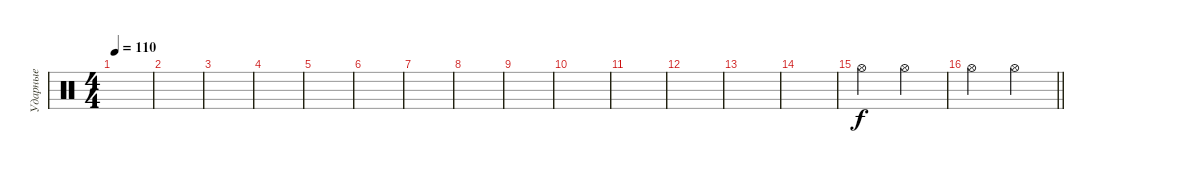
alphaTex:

\track ("Ударные" "Ударные") {instrument percussion}
\staff {score}
\articulation defaults
\ts (4 4)
\section ("" "")
\tempo 110
\clef neutral
\ks c
|
|
|
|
|
|
|
|
|
|
|
|
|
|
"Hi-Hat (open)".2 "Hi-Hat (open)".2 |
\barLineRight lightlight "Hi-Hat (open)".2 "Hi-Hat (open)".2
